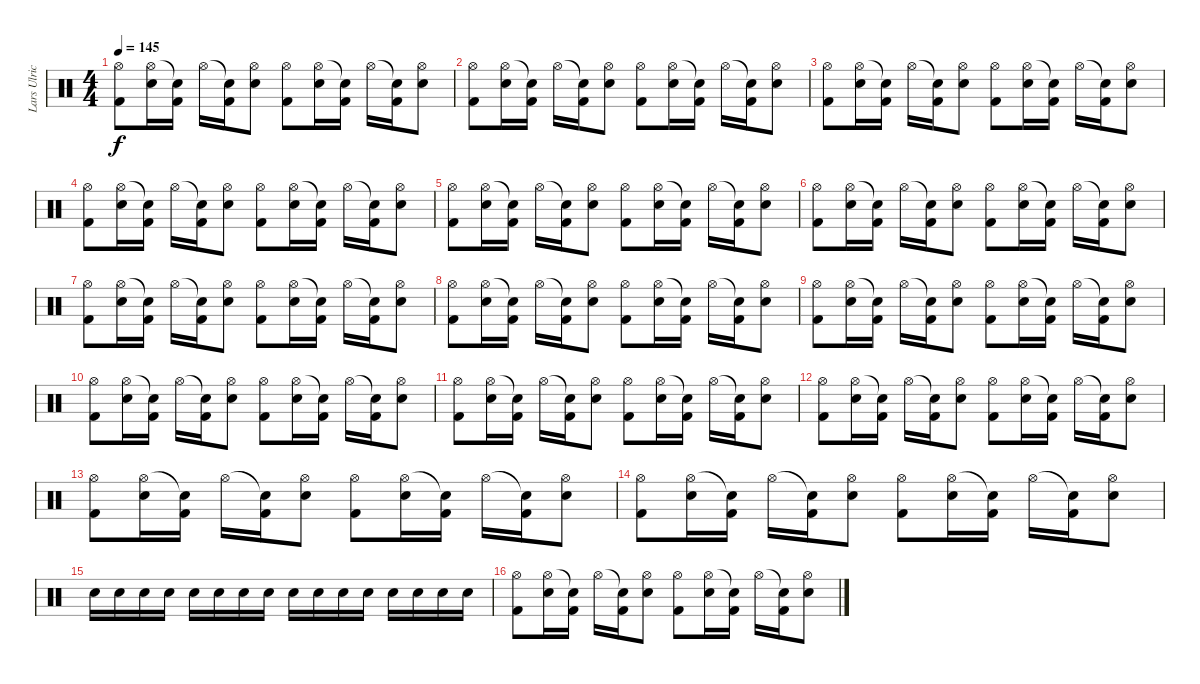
\track ("Lars Ulrich" "Lars Ulric") {instrument percussion}
\staff {score}
\articulation defaults
\ts (4 4)
\tempo 145
\clef neutral
\ks c
("Hi-Hat (open)" "Kick (hit) 2").8{dy f} ("Hi-Hat (open)" "Electric Snare (hit)").16 ("Snare (hit)"{t} "Kick (hit) 2").16 "Hi-Hat (open)".16 ("Snare (hit)"{t} "Kick (hit) 2").16 ("Hi-Hat (open)" "Electric Snare (hit)").8 ("Hi-Hat (open)" "Kick (hit) 2").8 ("Hi-Hat (open)" "Electric Snare (hit)").16 ("Snare (hit)"{t} "Kick (hit) 2").16 "Hi-Hat (open)".16 ("Snare (hit)"{t} "Kick (hit) 2").16 ("Hi-Hat (open)" "Electric Snare (hit)").8 |
("Hi-Hat (open)" "Kick (hit) 2").8 ("Hi-Hat (open)" "Electric Snare (hit)").16 ("Snare (hit)"{t} "Kick (hit) 2").16 "Hi-Hat (open)".16 ("Snare (hit)"{t} "Kick (hit) 2").16 ("Hi-Hat (open)" "Electric Snare (hit)").8 ("Hi-Hat (open)" "Kick (hit) 2").8 ("Hi-Hat (open)" "Electric Snare (hit)").16 ("Snare (hit)"{t} "Kick (hit) 2").16 "Hi-Hat (open)".16 ("Snare (hit)"{t} "Kick (hit) 2").16 ("Hi-Hat (open)" "Electric Snare (hit)").8 |
("Hi-Hat (open)" "Kick (hit) 2").8 ("Hi-Hat (open)" "Electric Snare (hit)").16 ("Snare (hit)"{t} "Kick (hit) 2").16 "Hi-Hat (open)".16 ("Snare (hit)"{t} "Kick (hit) 2").16 ("Hi-Hat (open)" "Electric Snare (hit)").8 ("Hi-Hat (open)" "Kick (hit) 2").8 ("Hi-Hat (open)" "Electric Snare (hit)").16 ("Snare (hit)"{t} "Kick (hit) 2").16 "Hi-Hat (open)".16 ("Snare (hit)"{t} "Kick (hit) 2").16 ("Hi-Hat (open)" "Electric Snare (hit)").8 |
("Hi-Hat (open)" "Kick (hit) 2").8 ("Hi-Hat (open)" "Electric Snare (hit)").16 ("Snare (hit)"{t} "Kick (hit) 2").16 "Hi-Hat (open)".16 ("Snare (hit)"{t} "Kick (hit) 2").16 ("Hi-Hat (open)" "Electric Snare (hit)").8 ("Hi-Hat (open)" "Kick (hit) 2").8 ("Hi-Hat (open)" "Electric Snare (hit)").16 ("Snare (hit)"{t} "Kick (hit) 2").16 "Hi-Hat (open)".16 ("Snare (hit)"{t} "Kick (hit) 2").16 ("Hi-Hat (open)" "Electric Snare (hit)").8 |
("Hi-Hat (open)" "Kick (hit) 2").8 ("Hi-Hat (open)" "Electric Snare (hit)").16 ("Snare (hit)"{t} "Kick (hit) 2").16 "Hi-Hat (open)".16 ("Snare (hit)"{t} "Kick (hit) 2").16 ("Hi-Hat (open)" "Electric Snare (hit)").8 ("Hi-Hat (open)" "Kick (hit) 2").8 ("Hi-Hat (open)" "Electric Snare (hit)").16 ("Snare (hit)"{t} "Kick (hit) 2").16 "Hi-Hat (open)".16 ("Snare (hit)"{t} "Kick (hit) 2").16 ("Hi-Hat (open)" "Electric Snare (hit)").8 |
("Hi-Hat (open)" "Kick (hit) 2").8 ("Hi-Hat (open)" "Electric Snare (hit)").16 ("Snare (hit)"{t} "Kick (hit) 2").16 "Hi-Hat (open)".16 ("Snare (hit)"{t} "Kick (hit) 2").16 ("Hi-Hat (open)" "Electric Snare (hit)").8 ("Hi-Hat (open)" "Kick (hit) 2").8 ("Hi-Hat (open)" "Electric Snare (hit)").16 ("Snare (hit)"{t} "Kick (hit) 2").16 "Hi-Hat (open)".16 ("Snare (hit)"{t} "Kick (hit) 2").16 ("Hi-Hat (open)" "Electric Snare (hit)").8 |
("Hi-Hat (open)" "Kick (hit) 2").8 ("Hi-Hat (open)" "Electric Snare (hit)").16 ("Snare (hit)"{t} "Kick (hit) 2").16 "Hi-Hat (open)".16 ("Snare (hit)"{t} "Kick (hit) 2").16 ("Hi-Hat (open)" "Electric Snare (hit)").8 ("Hi-Hat (open)" "Kick (hit) 2").8 ("Hi-Hat (open)" "Electric Snare (hit)").16 ("Snare (hit)"{t} "Kick (hit) 2").16 "Hi-Hat (open)".16 ("Snare (hit)"{t} "Kick (hit) 2").16 ("Hi-Hat (open)" "Electric Snare (hit)").8 |
("Hi-Hat (open)" "Kick (hit) 2").8 ("Hi-Hat (open)" "Electric Snare (hit)").16 ("Snare (hit)"{t} "Kick (hit) 2").16 "Hi-Hat (open)".16 ("Snare (hit)"{t} "Kick (hit) 2").16 ("Hi-Hat (open)" "Electric Snare (hit)").8 ("Hi-Hat (open)" "Kick (hit) 2").8 ("Hi-Hat (open)" "Electric Snare (hit)").16 ("Snare (hit)"{t} "Kick (hit) 2").16 "Hi-Hat (open)".16 ("Snare (hit)"{t} "Kick (hit) 2").16 ("Hi-Hat (open)" "Electric Snare (hit)").8 |
("Hi-Hat (open)" "Kick (hit) 2").8 ("Hi-Hat (open)" "Electric Snare (hit)").16 ("Snare (hit)"{t} "Kick (hit) 2").16 "Hi-Hat (open)".16 ("Snare (hit)"{t} "Kick (hit) 2").16 ("Hi-Hat (open)" "Electric Snare (hit)").8 ("Hi-Hat (open)" "Kick (hit) 2").8 ("Hi-Hat (open)" "Electric Snare (hit)").16 ("Snare (hit)"{t} "Kick (hit) 2").16 "Hi-Hat (open)".16 ("Snare (hit)"{t} "Kick (hit) 2").16 ("Hi-Hat (open)" "Electric Snare (hit)").8 |
("Hi-Hat (open)" "Kick (hit) 2").8 ("Hi-Hat (open)" "Electric Snare (hit)").16 ("Snare (hit)"{t} "Kick (hit) 2").16 "Hi-Hat (open)".16 ("Snare (hit)"{t} "Kick (hit) 2").16 ("Hi-Hat (open)" "Electric Snare (hit)").8 ("Hi-Hat (open)" "Kick (hit) 2").8 ("Hi-Hat (open)" "Electric Snare (hit)").16 ("Snare (hit)"{t} "Kick (hit) 2").16 "Hi-Hat (open)".16 ("Snare (hit)"{t} "Kick (hit) 2").16 ("Hi-Hat (open)" "Electric Snare (hit)").8 |
("Hi-Hat (open)" "Kick (hit) 2").8 ("Hi-Hat (open)" "Electric Snare (hit)").16 ("Snare (hit)"{t} "Kick (hit) 2").16 "Hi-Hat (open)".16 ("Snare (hit)"{t} "Kick (hit) 2").16 ("Hi-Hat (open)" "Electric Snare (hit)").8 ("Hi-Hat (open)" "Kick (hit) 2").8 ("Hi-Hat (open)" "Electric Snare (hit)").16 ("Snare (hit)"{t} "Kick (hit) 2").16 "Hi-Hat (open)".16 ("Snare (hit)"{t} "Kick (hit) 2").16 ("Hi-Hat (open)" "Electric Snare (hit)").8 |
("Hi-Hat (open)" "Kick (hit) 2").8 ("Hi-Hat (open)" "Electric Snare (hit)").16 ("Snare (hit)"{t} "Kick (hit) 2").16 "Hi-Hat (open)".16 ("Snare (hit)"{t} "Kick (hit) 2").16 ("Hi-Hat (open)" "Electric Snare (hit)").8 ("Hi-Hat (open)" "Kick (hit) 2").8 ("Hi-Hat (open)" "Electric Snare (hit)").16 ("Snare (hit)"{t} "Kick (hit) 2").16 "Hi-Hat (open)".16 ("Snare (hit)"{t} "Kick (hit) 2").16 ("Hi-Hat (open)" "Electric Snare (hit)").8 |
("Hi-Hat (open)" "Kick (hit) 2").8 ("Hi-Hat (open)" "Electric Snare (hit)").16 ("Snare (hit)"{t} "Kick (hit) 2").16 "Hi-Hat (open)".16 ("Snare (hit)"{t} "Kick (hit) 2").16 ("Hi-Hat (open)" "Electric Snare (hit)").8 ("Hi-Hat (open)" "Kick (hit) 2").8 ("Hi-Hat (open)" "Electric Snare (hit)").16 ("Snare (hit)"{t} "Kick (hit) 2").16 "Hi-Hat (open)".16 ("Snare (hit)"{t} "Kick (hit) 2").16 ("Hi-Hat (open)" "Electric Snare (hit)").8 |
("Hi-Hat (open)" "Kick (hit) 2").8 ("Hi-Hat (open)" "Electric Snare (hit)").16 ("Snare (hit)"{t} "Kick (hit) 2").16 "Hi-Hat (open)".16 ("Snare (hit)"{t} "Kick (hit) 2").16 ("Hi-Hat (open)" "Electric Snare (hit)").8 ("Hi-Hat (open)" "Kick (hit) 2").8 ("Hi-Hat (open)" "Electric Snare (hit)").16 ("Snare (hit)"{t} "Kick (hit) 2").16 "Hi-Hat (open)".16 ("Snare (hit)"{t} "Kick (hit) 2").16 ("Hi-Hat (open)" "Electric Snare (hit)").8 |
"Electric Snare (hit)".16 "Electric Snare (hit)".16 "Electric Snare (hit)".16 "Electric Snare (hit)".16 "Electric Snare (hit)".16 "Electric Snare (hit)".16 "Electric Snare (hit)".16 "Electric Snare (hit)".16 "Electric Snare (hit)".16 "Electric Snare (hit)".16 "Electric Snare (hit)".16 "Electric Snare (hit)".16 "Electric Snare (hit)".16 "Electric Snare (hit)".16 "Electric Snare (hit)".16 "Electric Snare (hit)".16 |
("Hi-Hat (open)" "Kick (hit) 2").8 ("Hi-Hat (open)" "Electric Snare (hit)").16 ("Snare (hit)"{t} "Kick (hit) 2").16 "Hi-Hat (open)".16 ("Snare (hit)"{t} "Kick (hit) 2").16 ("Hi-Hat (open)" "Electric Snare (hit)").8 ("Hi-Hat (open)" "Kick (hit) 2").8 ("Hi-Hat (open)" "Electric Snare (hit)").16 ("Snare (hit)"{t} "Kick (hit) 2").16 "Hi-Hat (open)".16 ("Snare (hit)"{t} "Kick (hit) 2").16 ("Hi-Hat (open)" "Electric Snare (hit)").8
